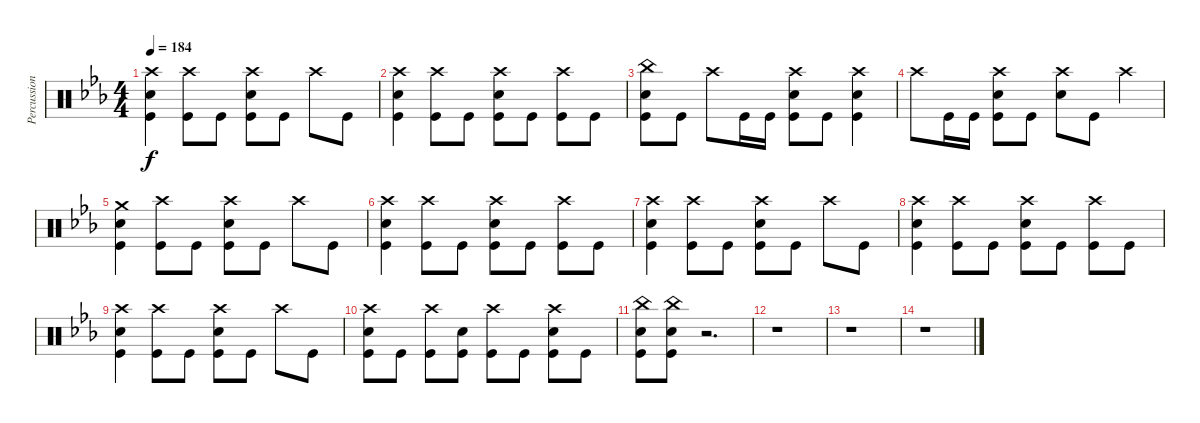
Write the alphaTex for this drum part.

\track ("Percussion" "Percussion") {instrument percussion}
\staff {score}
\articulation defaults
\ts (4 4)
\tempo 184
\clef neutral
\ks eb
("Crash high (hit)" "Electric Snare (hit)" "Kick (hit)").4{dy f} ("Crash high (hit)" "Kick (hit)").8 "Kick (hit)".8 ("Crash high (hit)" "Electric Snare (hit)" "Kick (hit)").8 "Kick (hit)".8 "Crash high (hit)".8 "Kick (hit)".8 |
("Crash high (hit)" "Electric Snare (hit)" "Kick (hit)").4 ("Crash high (hit)" "Kick (hit)").8 "Kick (hit)".8 ("Crash high (hit)" "Electric Snare (hit)" "Kick (hit)").8 "Kick (hit)".8 ("Crash high (hit)" "Kick (hit)").8 "Kick (hit)".8 |
("China (hit)" "Electric Snare (hit)" "Kick (hit)").8 "Kick (hit)".8 "Crash high (hit)".8 "Kick (hit)".16 "Kick (hit)".16 ("Crash high (hit)" "Electric Snare (hit)" "Kick (hit)").8 "Kick (hit)".8 ("Crash high (hit)" "Electric Snare (hit)" "Kick (hit)").4 |
"Crash high (hit)".8 "Kick (hit)".16 "Kick (hit)".16 ("Crash high (hit)" "Electric Snare (hit)" "Kick (hit)").8 "Kick (hit)".8 ("Crash high (hit)" "Electric Snare (hit)").8 "Kick (hit)".8 "Crash high (hit)".4 |
("Crash medium (hit)" "Electric Snare (hit)" "Kick (hit)").4 ("Crash high (hit)" "Kick (hit)").8 "Kick (hit)".8 ("Crash high (hit)" "Electric Snare (hit)" "Kick (hit)").8 "Kick (hit)".8 "Crash high (hit)".8 "Kick (hit)".8 |
("Crash high (hit)" "Electric Snare (hit)" "Kick (hit)").4 ("Crash high (hit)" "Kick (hit)").8 "Kick (hit)".8 ("Crash high (hit)" "Electric Snare (hit)" "Kick (hit)").8 "Kick (hit)".8 ("Crash high (hit)" "Kick (hit)").8 "Kick (hit)".8 |
("Crash high (hit)" "Electric Snare (hit)" "Kick (hit)").4 ("Crash high (hit)" "Kick (hit)").8 "Kick (hit)".8 ("Crash high (hit)" "Electric Snare (hit)" "Kick (hit)").8 "Kick (hit)".8 "Crash high (hit)".8 "Kick (hit)".8 |
("Crash high (hit)" "Electric Snare (hit)" "Kick (hit)").4 ("Crash high (hit)" "Kick (hit)").8 "Kick (hit)".8 ("Crash high (hit)" "Electric Snare (hit)" "Kick (hit)").8 "Kick (hit)".8 ("Crash high (hit)" "Kick (hit)").8 "Kick (hit)".8 |
("Crash high (hit)" "Electric Snare (hit)" "Kick (hit)").4 ("Crash high (hit)" "Kick (hit)").8 "Kick (hit)".8 ("Crash high (hit)" "Electric Snare (hit)" "Kick (hit)").8 "Kick (hit)".8 "Crash high (hit)".8 "Kick (hit)".8 |
("Crash high (hit)" "Electric Snare (hit)" "Kick (hit)").8 "Kick (hit)".8 ("Crash high (hit)" "Kick (hit)").8 ("Electric Snare (hit)" "Kick (hit)").8 ("Crash high (hit)" "Kick (hit)").8 "Kick (hit)".8 ("Crash high (hit)" "Electric Snare (hit)" "Kick (hit)").8 "Kick (hit)".8 |
("China (hit)" "Electric Snare (hit)" "Kick (hit)").8 ("China (hit)" "Electric Snare (hit)" "Kick (hit)").8 r.2{d} |
r.1 |
r.1 |
r.1
